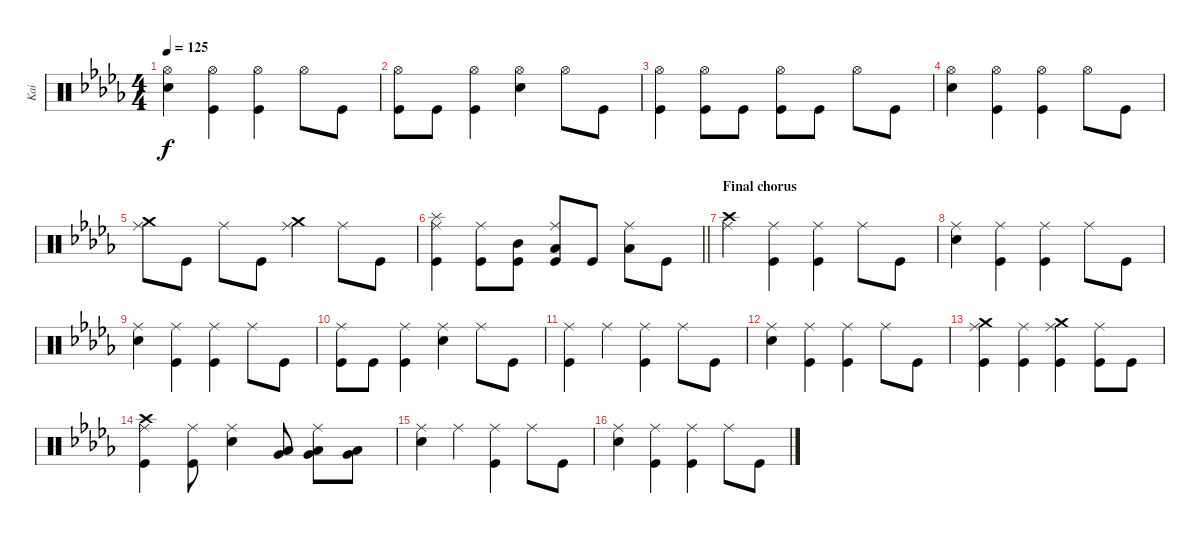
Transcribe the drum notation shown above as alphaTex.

\track ("Kai" "Kai") {instrument percussion}
\staff {score}
\articulation defaults
\ts (4 4)
\tempo 125
\clef neutral
\ks bbminor
("Snare (hit) 2" "Hi-Hat (open)").4{dy f} ("Kick (hit)" "Hi-Hat (open)").4 ("Hi-Hat (open)" "Kick (hit)").4 "Hi-Hat (open)".8 "Kick (hit)".8 |
("Kick (hit)" "Hi-Hat (open)").8 "Kick (hit)".8 ("Kick (hit)" "Hi-Hat (open)").4 ("Snare (hit) 2" "Hi-Hat (open)").4 "Hi-Hat (open)".8 "Kick (hit)".8 |
("Kick (hit)" "Hi-Hat (open)").4 ("Kick (hit)" "Hi-Hat (open)").8 "Kick (hit)".8 ("Kick (hit)" "Hi-Hat (open)").8 "Kick (hit)".8 "Hi-Hat (open)".8 "Kick (hit)".8 |
("Snare (hit) 2" "Hi-Hat (open)").4 ("Kick (hit)" "Hi-Hat (open)").4 ("Hi-Hat (open)" "Kick (hit)").4 "Hi-Hat (open)".8 "Kick (hit)".8 |
("Ride (middle)" "Crash medium (hit)").8 "Kick (hit)".8 "Ride (middle)".8 "Kick (hit)".8 ("Ride (middle)" "Crash medium (hit)").4 "Ride (middle)".8 "Kick (hit)".8 |
\barLineRight lightlight
("Kick (hit)" "Ride (middle)" "Splash (hit)").4 ("Kick (hit)" "Ride (middle)").8 ("Mid Tom (hit)" "Kick (hit)").8 ("Low Tom (hit)" "Kick (hit)" "Ride (middle)").8 "Kick (hit)".8 ("Low Tom (hit)" "Ride (middle)").8 "Kick (hit)".8 |
\section ("" "Final chorus")
("Crash high (hit)" "Ride (middle)").4 ("Kick (hit)" "Ride (middle)").4 ("Ride (middle)" "Kick (hit)").4 "Ride (middle)".8 "Kick (hit)".8 |
("Snare (hit) 2" "Ride (middle)").4 ("Kick (hit)" "Ride (middle)").4 ("Ride (middle)" "Kick (hit)").4 "Ride (middle)".8 "Kick (hit)".8 |
("Snare (hit) 2" "Ride (middle)").4 ("Kick (hit)" "Ride (middle)").4 ("Ride (middle)" "Kick (hit)").4 "Ride (middle)".8 "Kick (hit)".8 |
("Kick (hit)" "Ride (middle)").8 "Kick (hit)".8 ("Kick (hit)" "Ride (middle)").4 ("Snare (hit) 2" "Ride (middle)").4 "Ride (middle)".8 "Kick (hit)".8 |
("Kick (hit)" "Ride (middle)").4 "Ride (middle)".4 ("Ride (middle)" "Kick (hit)").4 "Ride (middle)".8 "Kick (hit)".8 |
("Snare (hit) 2" "Ride (middle)").4 ("Kick (hit)" "Ride (middle)").4 ("Ride (middle)" "Kick (hit)").4 "Ride (middle)".8 "Kick (hit)".8 |
("Kick (hit)" "Ride (middle)" "Crash medium (hit)").4 ("Kick (hit)" "Ride (middle)").4 ("Kick (hit)" "Crash medium (hit)" "Ride (middle)").4 ("Ride (middle)" "Kick (hit)").8 "Kick (hit)".8 |
("Kick (hit)" "Crash high (hit)" "Ride (middle)").4 ("Kick (hit)" "Ride (middle)").8 ("Snare (hit) 2" "Ride (middle)").4 ("Very Low Tom (hit)" "Low Tom (hit)").8 ("Ride (middle)" "Low Tom (hit)" "Very Low Tom (hit)").8 ("Low Tom (hit)" "Very Low Tom (hit)").8 |
("Snare (hit) 2" "Ride (middle)").4 "Ride (middle)".4 ("Ride (middle)" "Kick (hit)").4 "Ride (middle)".8 "Kick (hit)".8 |
("Snare (hit) 2" "Ride (middle)").4 ("Kick (hit)" "Ride (middle)").4 ("Ride (middle)" "Kick (hit)").4 "Ride (middle)".8 "Kick (hit)".8
